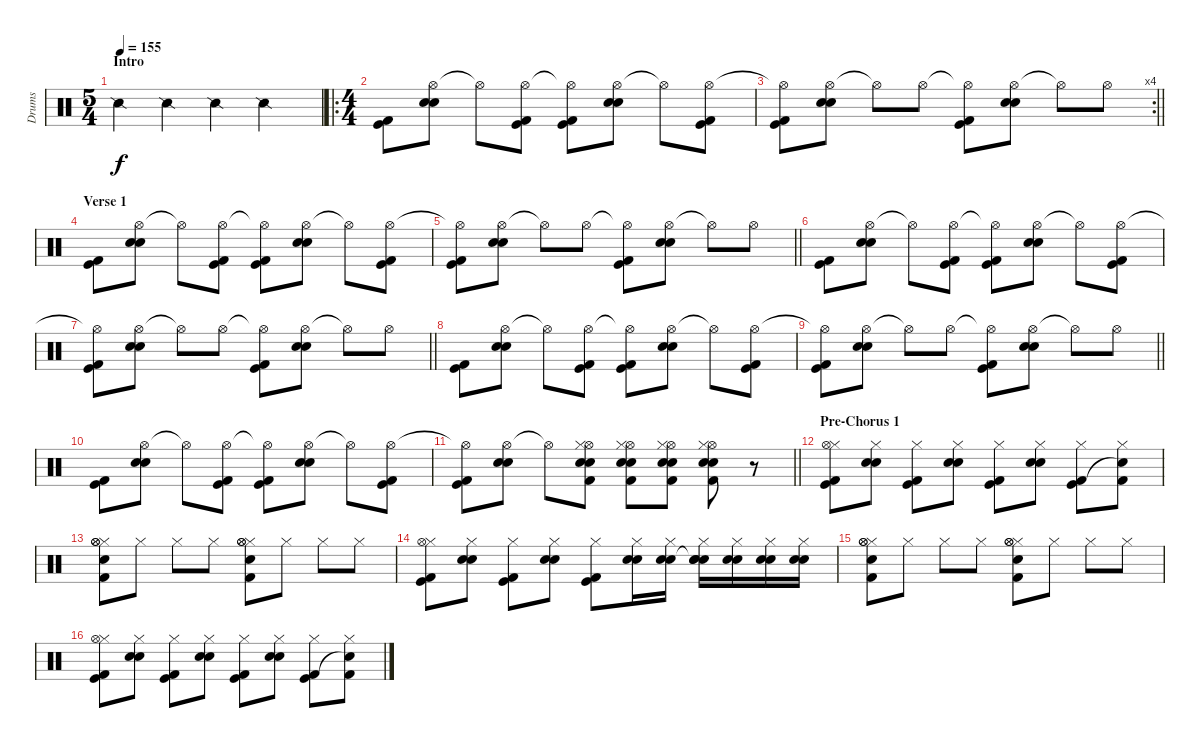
\track ("Drums" "Drums") {instrument percussion}
\staff {score}
\articulation defaults
\ts (5 4)
\section ("" "Intro")
\tempo 155
\clef neutral
\ks c "Snare (side stick) 2".4{dy f} "Snare (side stick) 2".4 "Snare (side stick) 2".4 "Snare (side stick) 2".2
|
\ro
\ts (4 4)
("Kick (hit)" "Kick (hit) 2").8 ("Hi-Hat (open)" "Electric Snare (hit)" "Electric Snare (hit)").8 "Hi-Hat (open)"{t}.8 ("Hi-Hat (open)" "Kick (hit)" "Kick (hit) 2").8 ("Hi-Hat (open)"{t} "Kick (hit)" "Kick (hit) 2").8 ("Hi-Hat (open)" "Electric Snare (hit)" "Electric Snare (hit)").8 "Hi-Hat (open)"{t}.8 ("Hi-Hat (open)" "Kick (hit)" "Kick (hit) 2").8 |
\rc 4
\barLineRight lightlight
("Hi-Hat (open)"{t} "Kick (hit)" "Kick (hit) 2").8 ("Hi-Hat (open)" "Electric Snare (hit)" "Electric Snare (hit)").8 "Hi-Hat (open)"{t}.8 "Hi-Hat (open)".8 ("Hi-Hat (open)"{t} "Kick (hit)" "Kick (hit) 2").8 ("Hi-Hat (open)" "Electric Snare (hit)" "Electric Snare (hit)").8 "Hi-Hat (open)"{t}.8 "Hi-Hat (open)".8 |
\section ("" "Verse 1")
("Kick (hit)" "Kick (hit) 2").8 ("Hi-Hat (open)" "Electric Snare (hit)" "Electric Snare (hit)").8 "Hi-Hat (open)"{t}.8 ("Hi-Hat (open)" "Kick (hit)" "Kick (hit) 2").8 ("Hi-Hat (open)"{t} "Kick (hit)" "Kick (hit) 2").8 ("Hi-Hat (open)" "Electric Snare (hit)" "Electric Snare (hit)").8 "Hi-Hat (open)"{t}.8 ("Hi-Hat (open)" "Kick (hit)" "Kick (hit) 2").8 |
\barLineRight lightlight
("Hi-Hat (open)"{t} "Kick (hit)" "Kick (hit) 2").8 ("Hi-Hat (open)" "Electric Snare (hit)" "Electric Snare (hit)").8 "Hi-Hat (open)"{t}.8 "Hi-Hat (open)".8 ("Hi-Hat (open)"{t} "Kick (hit)" "Kick (hit) 2").8 ("Hi-Hat (open)" "Electric Snare (hit)" "Electric Snare (hit)").8 "Hi-Hat (open)"{t}.8 "Hi-Hat (open)".8 |
("Kick (hit)" "Kick (hit) 2").8 ("Hi-Hat (open)" "Electric Snare (hit)" "Electric Snare (hit)").8 "Hi-Hat (open)"{t}.8 ("Hi-Hat (open)" "Kick (hit)" "Kick (hit) 2").8 ("Hi-Hat (open)"{t} "Kick (hit)" "Kick (hit) 2").8 ("Hi-Hat (open)" "Electric Snare (hit)" "Electric Snare (hit)").8 "Hi-Hat (open)"{t}.8 ("Hi-Hat (open)" "Kick (hit)" "Kick (hit) 2").8 |
\barLineRight lightlight
("Hi-Hat (open)"{t} "Kick (hit)" "Kick (hit) 2").8 ("Hi-Hat (open)" "Electric Snare (hit)" "Electric Snare (hit)").8 "Hi-Hat (open)"{t}.8 "Hi-Hat (open)".8 ("Hi-Hat (open)"{t} "Kick (hit)" "Kick (hit) 2").8 ("Hi-Hat (open)" "Electric Snare (hit)" "Electric Snare (hit)").8 "Hi-Hat (open)"{t}.8 "Hi-Hat (open)".8 |
("Kick (hit)" "Kick (hit) 2").8 ("Hi-Hat (open)" "Electric Snare (hit)" "Electric Snare (hit)").8 "Hi-Hat (open)"{t}.8 ("Hi-Hat (open)" "Kick (hit)" "Kick (hit) 2").8 ("Hi-Hat (open)"{t} "Kick (hit)" "Kick (hit) 2").8 ("Hi-Hat (open)" "Electric Snare (hit)" "Electric Snare (hit)").8 "Hi-Hat (open)"{t}.8 ("Hi-Hat (open)" "Kick (hit)" "Kick (hit) 2").8 |
\barLineRight lightlight
("Hi-Hat (open)"{t} "Kick (hit)" "Kick (hit) 2").8 ("Hi-Hat (open)" "Electric Snare (hit)" "Electric Snare (hit)").8 "Hi-Hat (open)"{t}.8 "Hi-Hat (open)".8 ("Hi-Hat (open)"{t} "Kick (hit)" "Kick (hit) 2").8 ("Hi-Hat (open)" "Electric Snare (hit)" "Electric Snare (hit)").8 "Hi-Hat (open)"{t}.8 "Hi-Hat (open)".8 |
("Kick (hit)" "Kick (hit) 2").8 ("Hi-Hat (open)" "Electric Snare (hit)" "Electric Snare (hit)").8 "Hi-Hat (open)"{t}.8 ("Hi-Hat (open)" "Kick (hit)" "Kick (hit) 2").8 ("Hi-Hat (open)"{t} "Kick (hit)" "Kick (hit) 2").8 ("Hi-Hat (open)" "Electric Snare (hit)" "Electric Snare (hit)").8 "Hi-Hat (open)"{t}.8 ("Hi-Hat (open)" "Kick (hit)" "Kick (hit) 2").8 |
\barLineRight lightlight
("Hi-Hat (open)"{t} "Kick (hit)" "Kick (hit) 2").8 ("Hi-Hat (open)" "Electric Snare (hit)" "Electric Snare (hit)").8 "Hi-Hat (open)"{t}.8 ("Hi-Hat (open)" "Kick (hit) 2" "Hi-Hat (closed)" "Electric Snare (hit)" "Electric Snare (hit)").8 ("Hi-Hat (open)" "Kick (hit) 2" "Hi-Hat (closed)" "Electric Snare (hit)" "Electric Snare (hit)").8 ("Hi-Hat (open)" "Kick (hit) 2" "Hi-Hat (closed)" "Electric Snare (hit)" "Electric Snare (hit)").8 ("Hi-Hat (open)" "Kick (hit) 2" "Hi-Hat (closed)" "Electric Snare (hit)" "Electric Snare (hit)").8 r.8 |
\section ("" "Pre-Chorus 1")
("Hi-Hat (closed)" "Hi-Hat (open)" "Kick (hit)" "Kick (hit) 2").8 ("Hi-Hat (closed)" "Electric Snare (hit)" "Electric Snare (hit)").8 ("Hi-Hat (closed)" "Kick (hit)" "Kick (hit) 2").8 ("Hi-Hat (closed)" "Electric Snare (hit)" "Electric Snare (hit)").8 ("Hi-Hat (closed)" "Kick (hit)" "Kick (hit) 2").8 ("Hi-Hat (closed)" "Electric Snare (hit)" "Electric Snare (hit)").8 ("Hi-Hat (closed)" "Kick (hit)" "Kick (hit) 2").8 ("Hi-Hat (closed)" "Snare (hit)"{t} "Kick (hit) 2").8 |
("Hi-Hat (closed)" "Hi-Hat (open)" "Electric Snare (hit)" "Hi-Hat (open)" "Kick (hit) 2").8 "Hi-Hat (closed)".8 "Hi-Hat (closed)".8 "Hi-Hat (closed)".8 ("Hi-Hat (closed)" "Hi-Hat (open)" "Electric Snare (hit)" "Hi-Hat (open)" "Kick (hit) 2").8 "Hi-Hat (closed)".8 "Hi-Hat (closed)".8 "Hi-Hat (closed)".8 |
("Hi-Hat (closed)" "Hi-Hat (open)" "Kick (hit)" "Kick (hit) 2").8 ("Hi-Hat (closed)" "Electric Snare (hit)" "Electric Snare (hit)").8 ("Hi-Hat (closed)" "Kick (hit)" "Kick (hit) 2").8 ("Hi-Hat (closed)" "Electric Snare (hit)" "Electric Snare (hit)").8 ("Hi-Hat (closed)" "Kick (hit)" "Kick (hit) 2").8 ("Hi-Hat (closed)" "Electric Snare (hit)" "Electric Snare (hit)").16 ("Hi-Hat (closed)" "Electric Snare (hit)" "Electric Snare (hit)").16 ("Hi-Hat (closed)" "Snare (hit)"{t} "Electric Snare (hit)" "Electric Snare (hit)").16 ("Hi-Hat (closed)" "Electric Snare (hit)" "Electric Snare (hit)").16 ("Hi-Hat (closed)" "Electric Snare (hit)" "Electric Snare (hit)").16 ("Hi-Hat (closed)" "Electric Snare (hit)" "Electric Snare (hit)").16 |
("Hi-Hat (closed)" "Hi-Hat (open)" "Electric Snare (hit)" "Hi-Hat (open)" "Kick (hit) 2").8 "Hi-Hat (closed)".8 "Hi-Hat (closed)".8 "Hi-Hat (closed)".8 ("Hi-Hat (closed)" "Hi-Hat (open)" "Electric Snare (hit)" "Hi-Hat (open)" "Kick (hit) 2").8 "Hi-Hat (closed)".8 "Hi-Hat (closed)".8 "Hi-Hat (closed)".8 |
("Hi-Hat (closed)" "Hi-Hat (open)" "Kick (hit)" "Kick (hit) 2").8 ("Hi-Hat (closed)" "Electric Snare (hit)" "Electric Snare (hit)").8 ("Hi-Hat (closed)" "Kick (hit)" "Kick (hit) 2").8 ("Hi-Hat (closed)" "Electric Snare (hit)" "Electric Snare (hit)").8 ("Hi-Hat (closed)" "Kick (hit)" "Kick (hit) 2").8 ("Hi-Hat (closed)" "Electric Snare (hit)" "Electric Snare (hit)").8 ("Hi-Hat (closed)" "Kick (hit)" "Kick (hit) 2").8 ("Hi-Hat (closed)" "Snare (hit)"{t} "Kick (hit) 2").8
